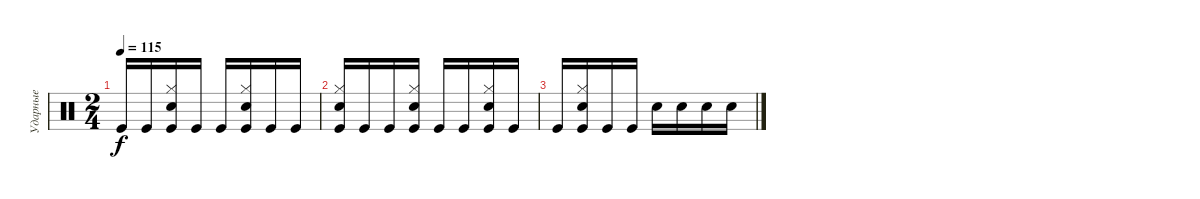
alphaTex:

\track ("Ударные" "Ударные") {instrument percussion}
\staff {score}
\articulation defaults
\ts (2 4)
\tempo 115
\clef neutral
\ks c "Kick (hit)".16{dy f} "Kick (hit)".16
("Hi-Hat (closed)" "Electric Snare (hit)" "Kick (hit)").16 "Kick (hit)".16 "Kick (hit)".16 ("Hi-Hat (closed)" "Electric Snare (hit)" "Kick (hit)").16 "Kick (hit)".16 "Kick (hit)".16 |
("Hi-Hat (closed)" "Electric Snare (hit)" "Kick (hit)").16 "Kick (hit)".16 "Kick (hit)".16 ("Hi-Hat (closed)" "Electric Snare (hit)" "Kick (hit)").16 "Kick (hit)".16 "Kick (hit)".16 ("Hi-Hat (closed)" "Electric Snare (hit)" "Kick (hit)").16 "Kick (hit)".16 |
"Kick (hit)".16 ("Hi-Hat (closed)" "Electric Snare (hit)" "Kick (hit)").16 "Kick (hit)".16 "Kick (hit)".16 "Electric Snare (hit)".16 "Electric Snare (hit)".16 "Electric Snare (hit)".16 "Electric Snare (hit)".16
